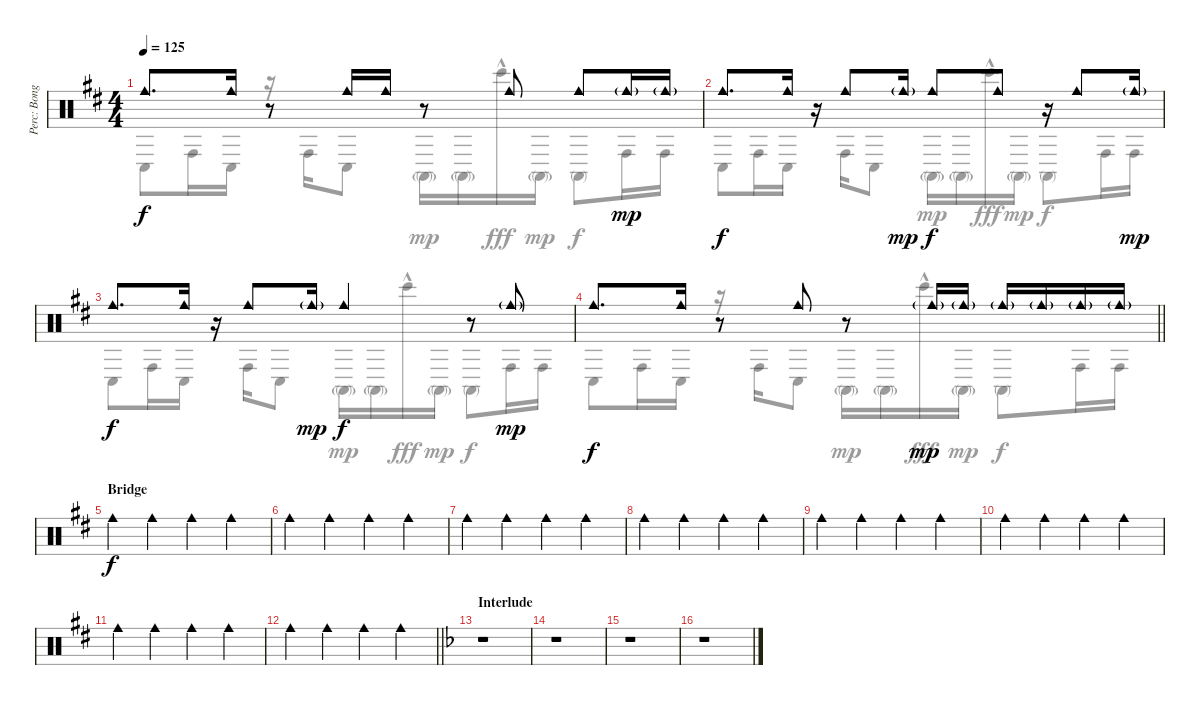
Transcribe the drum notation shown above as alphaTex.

\track ("Perc: Bongos + Cowbell + Triangle" "Perc: Bong") {instrument percussion}
\staff {score}
\articulation defaults
\voice
\ts (4 4)
\tempo 125
\clef neutral
\ks bminor "Cowbell medium (hit)".8{d dy f} "Cowbell medium (hit)".16
r.8 "Cowbell medium (hit)".16 "Cowbell medium (hit)".16 r.8 "Cowbell medium (hit)".8 "Cowbell medium (hit)".8 "Cowbell medium (hit)"{g}.16{dy mp} "Cowbell medium (hit)"{g}.16 |
"Cowbell medium (hit)".8{d dy f} "Cowbell medium (hit)".16 r.16 "Cowbell medium (hit)".8 "Cowbell medium (hit)"{g}.16{dy mp} "Cowbell medium (hit)".8{dy f} "Cowbell medium (hit)".8 r.16 "Cowbell medium (hit)".8 "Cowbell medium (hit)"{g}.16{dy mp} |
"Cowbell medium (hit)".8{d dy f} "Cowbell medium (hit)".16 r.16 "Cowbell medium (hit)".8 "Cowbell medium (hit)"{g}.16{dy mp} "Cowbell medium (hit)".4{dy f} r.8 "Cowbell medium (hit)"{g}.8{dy mp} |
\barLineRight lightlight "Cowbell medium (hit)".8{d dy f} "Cowbell medium (hit)".16
r.8 "Cowbell medium (hit)".8 r.8 "Cowbell medium (hit)"{g}.16{dy mp} "Cowbell medium (hit)"{g}.16 "Cowbell medium (hit)"{g}.16 "Cowbell medium (hit)"{g}.16 "Cowbell medium (hit)"{g}.16 "Cowbell medium (hit)"{g}.16 |
\section ("" "Bridge")
"Cowbell medium (hit)".4{dy f} "Cowbell medium (hit)".4 "Cowbell medium (hit)".4 "Cowbell medium (hit)".4 |
"Cowbell medium (hit)".4 "Cowbell medium (hit)".4 "Cowbell medium (hit)".4 "Cowbell medium (hit)".4 |
"Cowbell medium (hit)".4 "Cowbell medium (hit)".4 "Cowbell medium (hit)".4 "Cowbell medium (hit)".4 |
"Cowbell medium (hit)".4 "Cowbell medium (hit)".4 "Cowbell medium (hit)".4 "Cowbell medium (hit)".4 |
"Cowbell medium (hit)".4 "Cowbell medium (hit)".4 "Cowbell medium (hit)".4 "Cowbell medium (hit)".4 |
"Cowbell medium (hit)".4 "Cowbell medium (hit)".4 "Cowbell medium (hit)".4 "Cowbell medium (hit)".4 |
"Cowbell medium (hit)".4 "Cowbell medium (hit)".4 "Cowbell medium (hit)".4 "Cowbell medium (hit)".4 |
\barLineRight lightlight "Cowbell medium (hit)".4 "Cowbell medium (hit)".4 "Cowbell medium (hit)".4 "Cowbell medium (hit)".4
|
\section ("" "Interlude")
\ks dminor
r.1 |
r.1 |
r.1 |
r.1
\voice
\clef neutral
\ottava regular
\simile none
\ks bminor "Conga low (hit)".8{dy f} "Conga high (hit)".16 "Conga low (hit)".16
r.16 "Conga high (hit)".16 "Conga low (hit)".8 "Conga high (mute)"{g}.16{dy mp} "Conga high (mute)"{g}.16 "Bongo High (hit)"{hac}.16{dy fff} "Conga high (mute)"{g}.16{dy mp} "Conga high (mute)".8{dy f} "Conga high (hit)".16 "Conga high (hit)".16 |
"Conga low (hit)".8 "Conga high (hit)".16 "Conga low (hit)".16 r.16 "Conga high (hit)".16 "Conga low (hit)".8 "Conga high (mute)"{g}.16{dy mp} "Conga high (mute)"{g}.16 "Bongo High (hit)"{hac}.16{dy fff} "Conga high (mute)"{g}.16{dy mp} "Conga high (mute)".8{dy f} "Conga high (hit)".16 "Conga high (hit)".16 |
"Conga low (hit)".8 "Conga high (hit)".16 "Conga low (hit)".16 r.16 "Conga high (hit)".16 "Conga low (hit)".8 "Conga high (mute)"{g}.16{dy mp} "Conga high (mute)"{g}.16 "Bongo High (hit)"{hac}.16{dy fff} "Conga high (mute)"{g}.16{dy mp} "Conga high (mute)".8{dy f} "Conga high (hit)".16 "Conga high (hit)".16 |
\barLineRight lightlight "Conga low (hit)".8 "Conga high (hit)".16 "Conga low (hit)".16
r.16 "Conga high (hit)".16 "Conga low (hit)".8 "Conga high (mute)"{g}.16{dy mp} "Conga high (mute)"{g}.16 "Bongo High (hit)"{hac}.16{dy fff} "Conga high (mute)"{g}.16{dy mp} "Conga high (mute)".8{dy f} "Conga high (hit)".16 "Conga high (hit)".16 |
|
|
|
|
|
|
|
\barLineRight lightlight
|
\ks dminor
|
|
|
